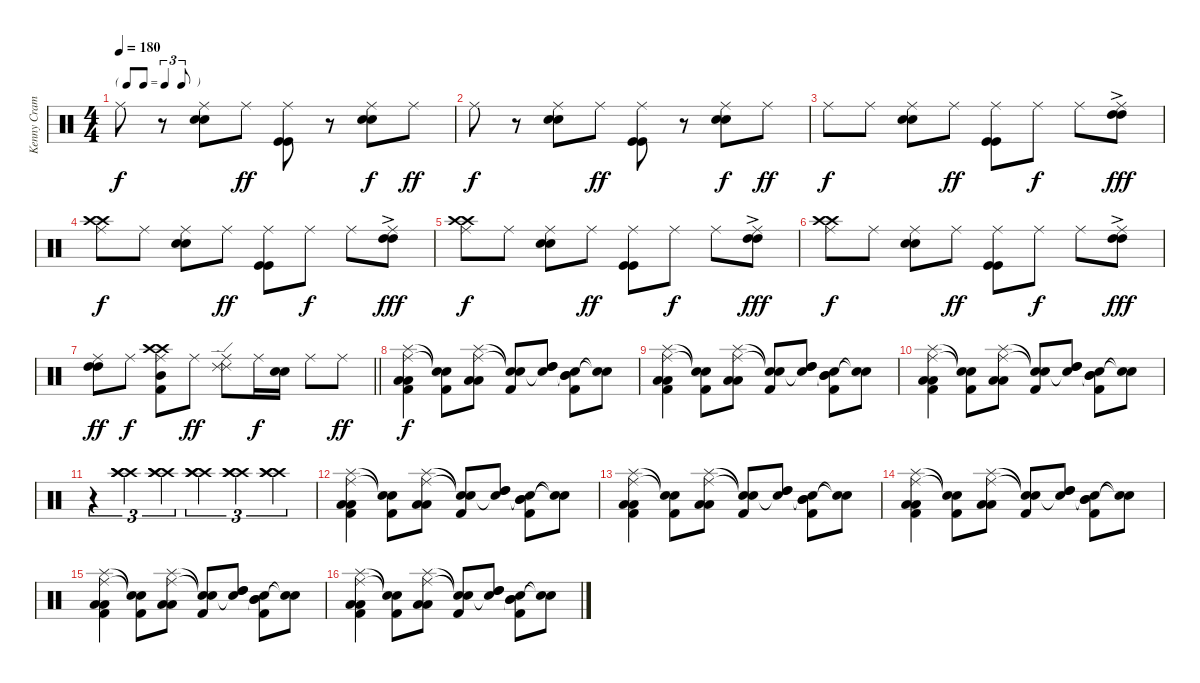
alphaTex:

\track ("Kenny Cramme" "Kenny Cram") {instrument percussion}
\staff {score}
\articulation defaults
\ts (4 4)
\tf triplet8th
\tempo 180
\clef neutral
\ks c "Ride (middle)".8{dy f}
r.8 ("Ride (middle)" "Snare (hit) 2" "Snare (hit) 2").8 "Ride (middle)".8{dy ff} ("Ride (middle)" "Kick (hit)" "Kick (hit)").8 r.8 ("Ride (middle)" "Snare (hit) 2" "Snare (hit) 2").8{dy f} "Ride (middle)".8{dy ff} |
"Ride (middle)".8{dy f} r.8 ("Ride (middle)" "Snare (hit) 2" "Snare (hit) 2").8 "Ride (middle)".8{dy ff} ("Ride (middle)" "Kick (hit)" "Kick (hit)").8 r.8 ("Ride (middle)" "Snare (hit) 2" "Snare (hit) 2").8{dy f} "Ride (middle)".8{dy ff} |
"Ride (middle)".8{dy f} "Ride (middle)".8 ("Ride (middle)" "Snare (hit) 2" "Snare (hit) 2").8 "Ride (middle)".8{dy ff} ("Ride (middle)" "Kick (hit)" "Kick (hit)").8 "Ride (middle)".8{dy f} "Ride (middle)".8 ("Ride (middle)" "High Tom (hit)"{ac} "High Tom (hit)").8{dy fff} |
("Ride (middle)" "Crash high (hit)" "Crash high (hit)").8{dy f} "Ride (middle)".8 ("Ride (middle)" "Snare (hit) 2" "Snare (hit) 2").8 "Ride (middle)".8{dy ff} ("Ride (middle)" "Kick (hit)" "Kick (hit)").8 "Ride (middle)".8{dy f} "Ride (middle)".8 ("Ride (middle)" "High Tom (hit)"{ac} "High Tom (hit)").8{dy fff} |
("Ride (middle)" "Crash high (hit)" "Crash high (hit)").8{dy f} "Ride (middle)".8 ("Ride (middle)" "Snare (hit) 2" "Snare (hit) 2").8 "Ride (middle)".8{dy ff} ("Ride (middle)" "Kick (hit)" "Kick (hit)").8 "Ride (middle)".8{dy f} "Ride (middle)".8 ("Ride (middle)" "High Tom (hit)"{ac} "High Tom (hit)").8{dy fff} |
("Ride (middle)" "Crash high (hit)" "Crash high (hit)").8{dy f} "Ride (middle)".8 ("Ride (middle)" "Snare (hit) 2" "Snare (hit) 2").8 "Ride (middle)".8{dy ff} ("Ride (middle)" "Kick (hit)" "Kick (hit)").8 "Ride (middle)".8{dy f} "Ride (middle)".8 ("Ride (middle)" "High Tom (hit)"{ac} "High Tom (hit)").8{dy fff} |
\barLineRight lightlight
("Ride (middle)" "High Tom (hit)" "High Tom (hit)").8{dy ff} "Ride (middle)".8{dy f} ("Ride (middle)" "Crash high (hit)" "Crash high (hit)" "Kick (hit) 2" "Mid Tom (hit)").8 "Ride (middle)".8{dy ff} ("Ride (middle)" "Ride (edge) 2" "Ride (edge) 2").8 "Ride (middle)".16{dy f} ("Snare (hit) 2" "Snare (hit) 2").16 "Ride (middle)".8 "Ride (middle)".8{dy ff} |
("Ride (middle)" "Splash (hit)" "Low Floor Tom (hit)" "Low Floor Tom (hit)" "Kick (hit) 2").4{dy f} ("Snare (hit)"{t} "Snare (hit)"{t} "Kick (hit) 2").8 ("Ride (middle)" "Splash (hit)" "Low Floor Tom (hit)" "Low Floor Tom (hit)").8 ("Snare (hit)"{t} "Snare (hit)"{t} "Kick (hit) 2").8 ("Snare (hit)"{t} "High Tom (hit)" "High Tom (hit)").8 ("Snare (hit)"{t} "Mid Tom (hit)" "Mid Tom (hit)" "Kick (hit) 2").8 ("Snare (hit)"{t} "Snare (hit)"{t}).8 |
("Ride (middle)" "Splash (hit)" "Low Floor Tom (hit)" "Low Floor Tom (hit)" "Kick (hit) 2").4 ("Snare (hit)"{t} "Snare (hit)"{t} "Kick (hit) 2").8 ("Ride (middle)" "Splash (hit)" "Low Floor Tom (hit)" "Low Floor Tom (hit)").8 ("Snare (hit)"{t} "Snare (hit)"{t} "Kick (hit) 2").8 ("Snare (hit)"{t} "High Tom (hit)" "High Tom (hit)").8 ("Snare (hit)"{t} "Mid Tom (hit)" "Mid Tom (hit)" "Kick (hit) 2").8 ("Snare (hit)"{t} "Snare (hit)"{t}).8 |
("Ride (middle)" "Splash (hit)" "Low Floor Tom (hit)" "Low Floor Tom (hit)" "Kick (hit) 2").4 ("Snare (hit)"{t} "Snare (hit)"{t} "Kick (hit) 2").8 ("Ride (middle)" "Splash (hit)" "Low Floor Tom (hit)" "Low Floor Tom (hit)").8 ("Snare (hit)"{t} "Snare (hit)"{t} "Kick (hit) 2").8 ("Snare (hit)"{t} "High Tom (hit)" "High Tom (hit)").8 ("Snare (hit)"{t} "Mid Tom (hit)" "Mid Tom (hit)" "Kick (hit) 2").8 ("Snare (hit)"{t} "Snare (hit)"{t}).8 |
r.4{tu (3 2)} ("Crash high (hit)" "Crash high (hit)" "Crash high (hit)").4{tu (3 2)} ("Crash high (hit)" "Crash high (hit)" "Crash high (hit)").4{tu (3 2)} ("Crash high (hit)" "Crash high (hit)" "Crash high (hit)").4{tu (3 2)} ("Crash high (hit)" "Crash high (hit)" "Crash high (hit)").4{tu (3 2)} ("Crash high (hit)" "Crash high (hit)" "Crash high (hit)").4{tu (3 2)} |
("Ride (middle)" "Splash (hit)" "Low Floor Tom (hit)" "Low Floor Tom (hit)" "Kick (hit) 2").4 ("Snare (hit)"{t} "Snare (hit)"{t} "Kick (hit) 2").8 ("Ride (middle)" "Splash (hit)" "Low Floor Tom (hit)" "Low Floor Tom (hit)").8 ("Snare (hit)"{t} "Snare (hit)"{t} "Kick (hit) 2").8 ("Snare (hit)"{t} "High Tom (hit)" "High Tom (hit)").8 ("Snare (hit)"{t} "Mid Tom (hit)" "Mid Tom (hit)" "Kick (hit) 2").8 ("Snare (hit)"{t} "Snare (hit)"{t}).8 |
("Ride (middle)" "Splash (hit)" "Low Floor Tom (hit)" "Low Floor Tom (hit)" "Kick (hit) 2").4 ("Snare (hit)"{t} "Snare (hit)"{t} "Kick (hit) 2").8 ("Ride (middle)" "Splash (hit)" "Low Floor Tom (hit)" "Low Floor Tom (hit)").8 ("Snare (hit)"{t} "Snare (hit)"{t} "Kick (hit) 2").8 ("Snare (hit)"{t} "High Tom (hit)" "High Tom (hit)").8 ("Snare (hit)"{t} "Mid Tom (hit)" "Mid Tom (hit)" "Kick (hit) 2").8 ("Snare (hit)"{t} "Snare (hit)"{t}).8 |
("Ride (middle)" "Splash (hit)" "Low Floor Tom (hit)" "Low Floor Tom (hit)" "Kick (hit) 2").4 ("Snare (hit)"{t} "Snare (hit)"{t} "Kick (hit) 2").8 ("Ride (middle)" "Splash (hit)" "Low Floor Tom (hit)" "Low Floor Tom (hit)").8 ("Snare (hit)"{t} "Snare (hit)"{t} "Kick (hit) 2").8 ("Snare (hit)"{t} "High Tom (hit)" "High Tom (hit)").8 ("Snare (hit)"{t} "Mid Tom (hit)" "Mid Tom (hit)" "Kick (hit) 2").8 ("Snare (hit)"{t} "Snare (hit)"{t}).8 |
("Ride (middle)" "Splash (hit)" "Low Floor Tom (hit)" "Low Floor Tom (hit)" "Kick (hit) 2").4 ("Snare (hit)"{t} "Snare (hit)"{t} "Kick (hit) 2").8 ("Ride (middle)" "Splash (hit)" "Low Floor Tom (hit)" "Low Floor Tom (hit)").8 ("Snare (hit)"{t} "Snare (hit)"{t} "Kick (hit) 2").8 ("Snare (hit)"{t} "High Tom (hit)" "High Tom (hit)").8 ("Snare (hit)"{t} "Mid Tom (hit)" "Mid Tom (hit)" "Kick (hit) 2").8 ("Snare (hit)"{t} "Snare (hit)"{t}).8 |
("Ride (middle)" "Splash (hit)" "Low Floor Tom (hit)" "Low Floor Tom (hit)" "Kick (hit) 2").4 ("Snare (hit)"{t} "Snare (hit)"{t} "Kick (hit) 2").8 ("Ride (middle)" "Splash (hit)" "Low Floor Tom (hit)" "Low Floor Tom (hit)").8 ("Snare (hit)"{t} "Snare (hit)"{t} "Kick (hit) 2").8 ("Snare (hit)"{t} "High Tom (hit)" "High Tom (hit)").8 ("Snare (hit)"{t} "Mid Tom (hit)" "Mid Tom (hit)" "Kick (hit) 2").8 ("Snare (hit)"{t} "Snare (hit)"{t}).8
